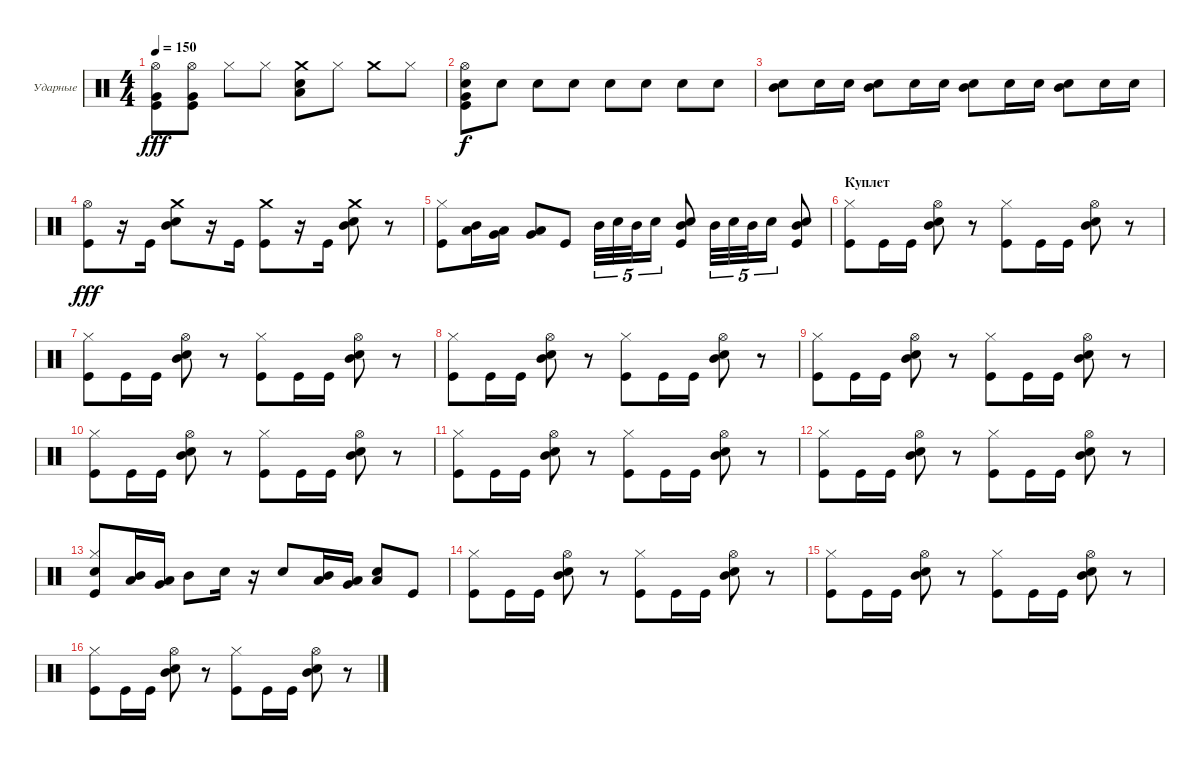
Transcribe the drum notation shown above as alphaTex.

\bracketExtendMode groupsimilarinstruments
\firstSystemTrackNameOrientation horizontal
\otherSystemsTrackNameOrientation horizontal
\track ("Максим Удалов" "Ударные") {instrument percussion}
\staff {score}
\articulation defaults
\ts (4 4)
\tempo 150
\clef neutral
\ks c
("Hi-Hat (open)" "Very Low Tom (hit)" "Kick (hit)").8{dy fff} ("Hi-Hat (open)" "Very Low Tom (hit)" "Kick (hit)").8 "Hi-Hat (closed)".8 "Hi-Hat (closed)".8 ("Crash medium (hit)" "Low Tom (hit)" "Snare (hit) 2").8 "Hi-Hat (closed)".8 "Crash medium (hit)".8 "Hi-Hat (closed)".8 |
("Hi-Hat (open)" "Very Low Tom (hit)" "Kick (hit)" "Snare (hit) 2").8{dy f} "Snare (hit) 2".8 "Snare (hit) 2".8 "Snare (hit) 2".8 "Snare (hit) 2".8 "Snare (hit) 2".8 "Snare (hit) 2".8 "Snare (hit) 2".8 |
("Mid Tom (hit)" "Snare (hit) 2").8 "Snare (hit) 2".16 "Snare (hit) 2".16 ("Mid Tom (hit)" "Snare (hit) 2").8 "Snare (hit) 2".16 "Snare (hit) 2".16 ("Mid Tom (hit)" "Snare (hit) 2").8 "Snare (hit) 2".16 "Snare (hit) 2".16 ("Mid Tom (hit)" "Snare (hit) 2").8 "Snare (hit) 2".16 "Snare (hit) 2".16 |
("Kick (hit)" "Hi-Hat (open)").8{dy fff} r.16 "Kick (hit)".16 ("Mid Tom (hit)" "Snare (hit) 2" "Crash medium (hit)").8 r.16 "Kick (hit)".16 ("Kick (hit)" "Crash medium (hit)").8 r.16 "Kick (hit)".16 ("Mid Tom (hit)" "Snare (hit) 2" "Crash medium (hit)").8 r.8 |
("Hi-Hat (closed)" "Kick (hit)").8 ("Mid Tom (hit)" "Low Tom (hit)").16 ("Low Tom (hit)" "Very Low Tom (hit)").16 ("Low Tom (hit)" "Very Low Tom (hit)").8 "Kick (hit)".8 "Mid Tom (hit)".32{tu (5 4)} "Snare (hit) 2".32{tu (5 4)} "Mid Tom (hit)".32{tu (5 4)} "Snare (hit) 2".16{tu (5 4)} ("Kick (hit)" "Mid Tom (hit)" "Snare (hit) 2").8 "Mid Tom (hit)".32{tu (5 4)} "Snare (hit) 2".32{tu (5 4)} "Mid Tom (hit)".32{tu (5 4)} "Snare (hit) 2".16{tu (5 4)} ("Mid Tom (hit)" "Kick (hit)" "Snare (hit) 2").8 |
\section ("" "Куплет")
("Hi-Hat (closed)" "Kick (hit)").8 "Kick (hit)".16 "Kick (hit)".16 ("Hi-Hat (open)" "Mid Tom (hit)" "Snare (hit) 2").8 r.8 ("Hi-Hat (closed)" "Kick (hit)").8 "Kick (hit)".16 "Kick (hit)".16 ("Hi-Hat (open)" "Mid Tom (hit)" "Snare (hit) 2").8 r.8 |
("Hi-Hat (closed)" "Kick (hit)").8 "Kick (hit)".16 "Kick (hit)".16 ("Hi-Hat (open)" "Mid Tom (hit)" "Snare (hit) 2").8 r.8 ("Hi-Hat (closed)" "Kick (hit)").8 "Kick (hit)".16 "Kick (hit)".16 ("Hi-Hat (open)" "Mid Tom (hit)" "Snare (hit) 2").8 r.8 |
("Hi-Hat (closed)" "Kick (hit)").8 "Kick (hit)".16 "Kick (hit)".16 ("Hi-Hat (open)" "Mid Tom (hit)" "Snare (hit) 2").8 r.8 ("Hi-Hat (closed)" "Kick (hit)").8 "Kick (hit)".16 "Kick (hit)".16 ("Hi-Hat (open)" "Mid Tom (hit)" "Snare (hit) 2").8 r.8 |
("Hi-Hat (closed)" "Kick (hit)").8 "Kick (hit)".16 "Kick (hit)".16 ("Hi-Hat (open)" "Mid Tom (hit)" "Snare (hit) 2").8 r.8 ("Hi-Hat (closed)" "Kick (hit)").8 "Kick (hit)".16 "Kick (hit)".16 ("Hi-Hat (open)" "Mid Tom (hit)" "Snare (hit) 2").8 r.8 |
("Hi-Hat (closed)" "Kick (hit)").8 "Kick (hit)".16 "Kick (hit)".16 ("Hi-Hat (open)" "Mid Tom (hit)" "Snare (hit) 2").8 r.8 ("Hi-Hat (closed)" "Kick (hit)").8 "Kick (hit)".16 "Kick (hit)".16 ("Hi-Hat (open)" "Mid Tom (hit)" "Snare (hit) 2").8 r.8 |
("Hi-Hat (closed)" "Kick (hit)").8 "Kick (hit)".16 "Kick (hit)".16 ("Hi-Hat (open)" "Mid Tom (hit)" "Snare (hit) 2").8 r.8 ("Hi-Hat (closed)" "Kick (hit)").8 "Kick (hit)".16 "Kick (hit)".16 ("Hi-Hat (open)" "Mid Tom (hit)" "Snare (hit) 2").8 r.8 |
("Hi-Hat (closed)" "Kick (hit)").8 "Kick (hit)".16 "Kick (hit)".16 ("Hi-Hat (open)" "Mid Tom (hit)" "Snare (hit) 2").8 r.8 ("Hi-Hat (closed)" "Kick (hit)").8 "Kick (hit)".16 "Kick (hit)".16 ("Hi-Hat (open)" "Mid Tom (hit)" "Snare (hit) 2").8 r.8 |
("Hi-Hat (closed)" "Snare (hit) 2" "Kick (hit)").8 ("Mid Tom (hit)" "Low Tom (hit)").16 ("Low Tom (hit)" "Very Low Tom (hit)").16 "Mid Tom (hit)".8 "Snare (hit) 2".16 r.16 "Snare (hit) 2".8 ("Mid Tom (hit)" "Low Tom (hit)").16 ("Low Tom (hit)" "Very Low Tom (hit)").16 ("Snare (hit) 2" "Low Tom (hit)").8 "Kick (hit)".8 |
("Hi-Hat (closed)" "Kick (hit)").8 "Kick (hit)".16 "Kick (hit)".16 ("Hi-Hat (open)" "Mid Tom (hit)" "Snare (hit) 2").8 r.8 ("Hi-Hat (closed)" "Kick (hit)").8 "Kick (hit)".16 "Kick (hit)".16 ("Hi-Hat (open)" "Mid Tom (hit)" "Snare (hit) 2").8 r.8 |
("Hi-Hat (closed)" "Kick (hit)").8 "Kick (hit)".16 "Kick (hit)".16 ("Hi-Hat (open)" "Mid Tom (hit)" "Snare (hit) 2").8 r.8 ("Hi-Hat (closed)" "Kick (hit)").8 "Kick (hit)".16 "Kick (hit)".16 ("Hi-Hat (open)" "Mid Tom (hit)" "Snare (hit) 2").8 r.8 |
("Hi-Hat (closed)" "Kick (hit)").8 "Kick (hit)".16 "Kick (hit)".16 ("Hi-Hat (open)" "Mid Tom (hit)" "Snare (hit) 2").8 r.8 ("Hi-Hat (closed)" "Kick (hit)").8 "Kick (hit)".16 "Kick (hit)".16 ("Hi-Hat (open)" "Mid Tom (hit)" "Snare (hit) 2").8 r.8
